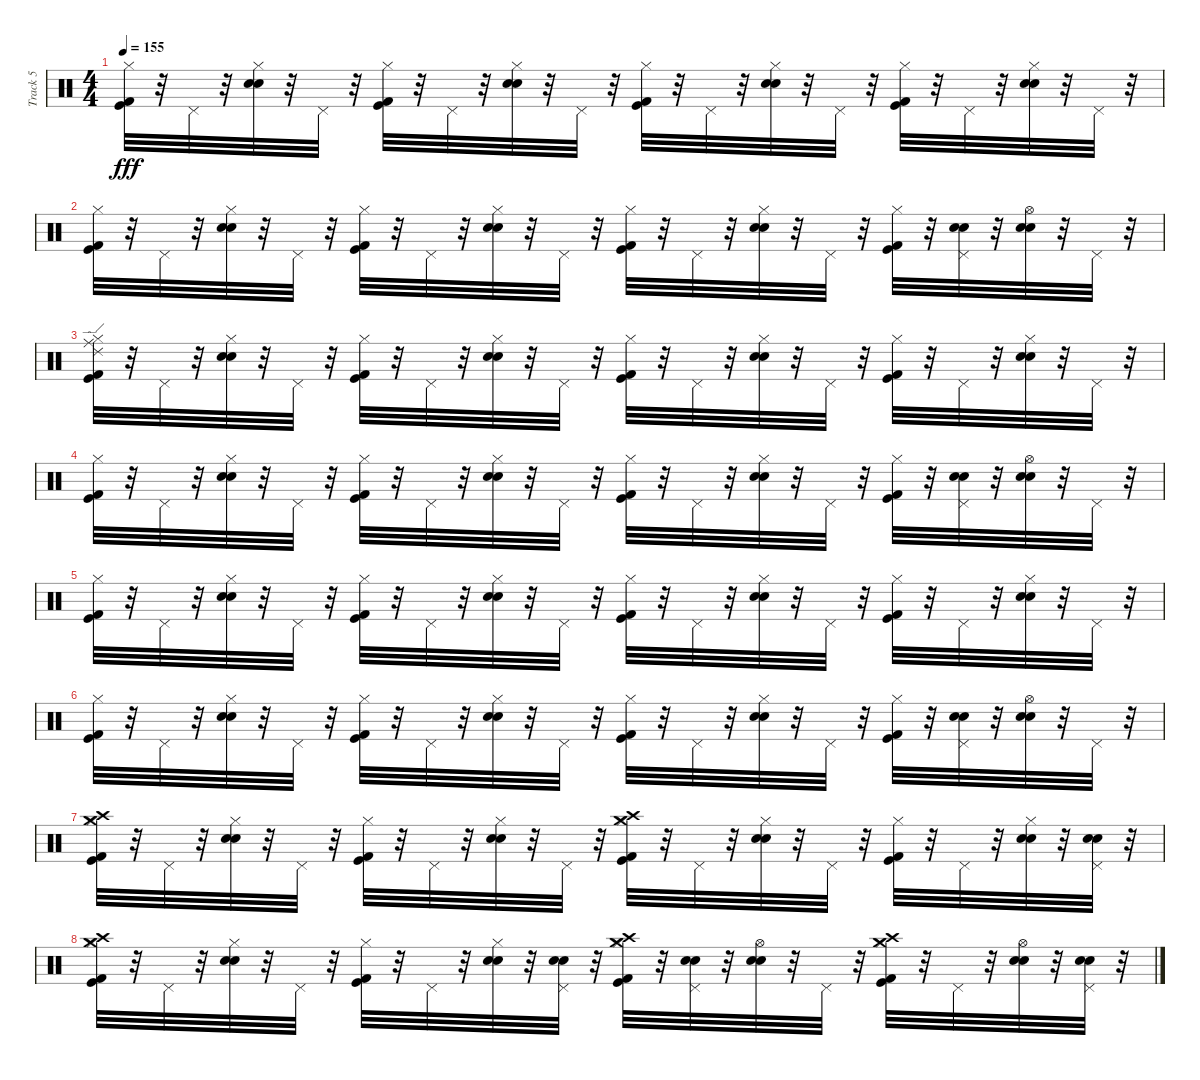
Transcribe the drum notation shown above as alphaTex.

\track ("Track 5" "Track 5") {instrument percussion}
\staff {score}
\articulation defaults
\ts (4 4)
\tempo 155
\clef neutral
\ks c
("Kick (hit)" "Kick (hit) 2" "Hi-Hat (closed)").32{dy fff} r.32 "Pedal Hi-Hat (hit)".32 r.32 ("Snare (hit) 2" "Electric Snare (hit)" "Hi-Hat (closed)").32 r.32 "Pedal Hi-Hat (hit)".32 r.32 ("Kick (hit)" "Kick (hit) 2" "Hi-Hat (closed)").32 r.32 "Pedal Hi-Hat (hit)".32 r.32 ("Snare (hit) 2" "Electric Snare (hit)" "Hi-Hat (closed)").32 r.32 "Pedal Hi-Hat (hit)".32 r.32 ("Kick (hit)" "Kick (hit) 2" "Hi-Hat (closed)").32 r.32 "Pedal Hi-Hat (hit)".32 r.32 ("Snare (hit) 2" "Electric Snare (hit)" "Hi-Hat (closed)").32 r.32 "Pedal Hi-Hat (hit)".32 r.32 ("Kick (hit)" "Kick (hit) 2" "Hi-Hat (closed)").32 r.32 "Pedal Hi-Hat (hit)".32 r.32 ("Snare (hit) 2" "Electric Snare (hit)" "Hi-Hat (closed)").32 r.32 "Pedal Hi-Hat (hit)".32 r.32 |
("Kick (hit)" "Kick (hit) 2" "Hi-Hat (closed)").32 r.32 "Pedal Hi-Hat (hit)".32 r.32 ("Snare (hit) 2" "Electric Snare (hit)" "Hi-Hat (closed)").32 r.32 "Pedal Hi-Hat (hit)".32 r.32 ("Kick (hit)" "Kick (hit) 2" "Hi-Hat (closed)").32 r.32 "Pedal Hi-Hat (hit)".32 r.32 ("Snare (hit) 2" "Electric Snare (hit)" "Hi-Hat (closed)").32 r.32 "Pedal Hi-Hat (hit)".32 r.32 ("Kick (hit)" "Kick (hit) 2" "Hi-Hat (closed)").32 r.32 "Pedal Hi-Hat (hit)".32 r.32 ("Snare (hit) 2" "Electric Snare (hit)" "Hi-Hat (closed)").32 r.32 "Pedal Hi-Hat (hit)".32 r.32 ("Kick (hit)" "Kick (hit) 2" "Hi-Hat (closed)").32 r.32 ("Snare (hit) 2" "Electric Snare (hit)" "Pedal Hi-Hat (hit)").32 r.32 ("Snare (hit) 2" "Electric Snare (hit)" "Hi-Hat (open)").32 r.32 "Pedal Hi-Hat (hit)".32 r.32 |
("Kick (hit)" "Kick (hit) 2" "Hi-Hat (closed)" "Ride (middle)" "Ride (edge) 2").32 r.32 "Pedal Hi-Hat (hit)".32 r.32 ("Snare (hit) 2" "Electric Snare (hit)" "Hi-Hat (closed)").32 r.32 "Pedal Hi-Hat (hit)".32 r.32 ("Kick (hit)" "Kick (hit) 2" "Hi-Hat (closed)").32 r.32 "Pedal Hi-Hat (hit)".32 r.32 ("Snare (hit) 2" "Electric Snare (hit)" "Hi-Hat (closed)").32 r.32 "Pedal Hi-Hat (hit)".32 r.32 ("Kick (hit)" "Kick (hit) 2" "Hi-Hat (closed)").32 r.32 "Pedal Hi-Hat (hit)".32 r.32 ("Snare (hit) 2" "Electric Snare (hit)" "Hi-Hat (closed)").32 r.32 "Pedal Hi-Hat (hit)".32 r.32 ("Kick (hit)" "Kick (hit) 2" "Hi-Hat (closed)").32 r.32 "Pedal Hi-Hat (hit)".32 r.32 ("Snare (hit) 2" "Electric Snare (hit)" "Hi-Hat (closed)").32 r.32 "Pedal Hi-Hat (hit)".32 r.32 |
("Kick (hit)" "Kick (hit) 2" "Hi-Hat (closed)").32 r.32 "Pedal Hi-Hat (hit)".32 r.32 ("Snare (hit) 2" "Electric Snare (hit)" "Hi-Hat (closed)").32 r.32 "Pedal Hi-Hat (hit)".32 r.32 ("Kick (hit)" "Kick (hit) 2" "Hi-Hat (closed)").32 r.32 "Pedal Hi-Hat (hit)".32 r.32 ("Snare (hit) 2" "Electric Snare (hit)" "Hi-Hat (closed)").32 r.32 "Pedal Hi-Hat (hit)".32 r.32 ("Kick (hit)" "Kick (hit) 2" "Hi-Hat (closed)").32 r.32 "Pedal Hi-Hat (hit)".32 r.32 ("Snare (hit) 2" "Electric Snare (hit)" "Hi-Hat (closed)").32 r.32 "Pedal Hi-Hat (hit)".32 r.32 ("Kick (hit)" "Kick (hit) 2" "Hi-Hat (closed)").32 r.32 ("Snare (hit) 2" "Electric Snare (hit)" "Pedal Hi-Hat (hit)").32 r.32 ("Snare (hit) 2" "Electric Snare (hit)" "Hi-Hat (open)").32 r.32 "Pedal Hi-Hat (hit)".32 r.32 |
("Kick (hit)" "Kick (hit) 2" "Hi-Hat (closed)").32 r.32 "Pedal Hi-Hat (hit)".32 r.32 ("Snare (hit) 2" "Electric Snare (hit)" "Hi-Hat (closed)").32 r.32 "Pedal Hi-Hat (hit)".32 r.32 ("Kick (hit)" "Kick (hit) 2" "Hi-Hat (closed)").32 r.32 "Pedal Hi-Hat (hit)".32 r.32 ("Snare (hit) 2" "Electric Snare (hit)" "Hi-Hat (closed)").32 r.32 "Pedal Hi-Hat (hit)".32 r.32 ("Kick (hit)" "Kick (hit) 2" "Hi-Hat (closed)").32 r.32 "Pedal Hi-Hat (hit)".32 r.32 ("Snare (hit) 2" "Electric Snare (hit)" "Hi-Hat (closed)").32 r.32 "Pedal Hi-Hat (hit)".32 r.32 ("Kick (hit)" "Kick (hit) 2" "Hi-Hat (closed)").32 r.32 "Pedal Hi-Hat (hit)".32 r.32 ("Snare (hit) 2" "Electric Snare (hit)" "Hi-Hat (closed)").32 r.32 "Pedal Hi-Hat (hit)".32 r.32 |
("Kick (hit)" "Kick (hit) 2" "Hi-Hat (closed)").32 r.32 "Pedal Hi-Hat (hit)".32 r.32 ("Snare (hit) 2" "Electric Snare (hit)" "Hi-Hat (closed)").32 r.32 "Pedal Hi-Hat (hit)".32 r.32 ("Kick (hit)" "Kick (hit) 2" "Hi-Hat (closed)").32 r.32 "Pedal Hi-Hat (hit)".32 r.32 ("Snare (hit) 2" "Electric Snare (hit)" "Hi-Hat (closed)").32 r.32 "Pedal Hi-Hat (hit)".32 r.32 ("Kick (hit)" "Kick (hit) 2" "Hi-Hat (closed)").32 r.32 "Pedal Hi-Hat (hit)".32 r.32 ("Snare (hit) 2" "Electric Snare (hit)" "Hi-Hat (closed)").32 r.32 "Pedal Hi-Hat (hit)".32 r.32 ("Kick (hit)" "Kick (hit) 2" "Hi-Hat (closed)").32 r.32 ("Snare (hit) 2" "Electric Snare (hit)" "Pedal Hi-Hat (hit)").32 r.32 ("Snare (hit) 2" "Electric Snare (hit)" "Hi-Hat (open)").32 r.32 "Pedal Hi-Hat (hit)".32 r.32 |
("Kick (hit)" "Kick (hit) 2" "Hi-Hat (closed)" "Crash high (hit)" "Crash medium (hit)").32 r.32 "Pedal Hi-Hat (hit)".32 r.32 ("Snare (hit) 2" "Electric Snare (hit)" "Hi-Hat (closed)").32 r.32 "Pedal Hi-Hat (hit)".32 r.32 ("Kick (hit)" "Kick (hit) 2" "Hi-Hat (closed)").32 r.32 "Pedal Hi-Hat (hit)".32 r.32 ("Snare (hit) 2" "Electric Snare (hit)" "Hi-Hat (closed)").32 r.32 "Pedal Hi-Hat (hit)".32 r.32 ("Kick (hit)" "Kick (hit) 2" "Hi-Hat (closed)" "Crash high (hit)" "Crash medium (hit)").32 r.32 "Pedal Hi-Hat (hit)".32 r.32 ("Snare (hit) 2" "Electric Snare (hit)" "Hi-Hat (closed)").32 r.32 "Pedal Hi-Hat (hit)".32 r.32 ("Kick (hit)" "Kick (hit) 2" "Hi-Hat (closed)").32 r.32 "Pedal Hi-Hat (hit)".32 r.32 ("Snare (hit) 2" "Electric Snare (hit)" "Hi-Hat (closed)").32 r.32 ("Snare (hit) 2" "Electric Snare (hit)" "Pedal Hi-Hat (hit)").32 r.32 |
("Kick (hit)" "Kick (hit) 2" "Hi-Hat (closed)" "Crash high (hit)" "Crash medium (hit)").32 r.32 "Pedal Hi-Hat (hit)".32 r.32 ("Snare (hit) 2" "Electric Snare (hit)" "Hi-Hat (closed)").32 r.32 "Pedal Hi-Hat (hit)".32 r.32 ("Kick (hit)" "Kick (hit) 2" "Hi-Hat (closed)").32 r.32 "Pedal Hi-Hat (hit)".32 r.32 ("Snare (hit) 2" "Electric Snare (hit)" "Hi-Hat (closed)").32 r.32 ("Snare (hit) 2" "Electric Snare (hit)" "Pedal Hi-Hat (hit)").32 r.32 ("Kick (hit)" "Kick (hit) 2" "Hi-Hat (closed)" "Crash high (hit)" "Crash medium (hit)").32 r.32 ("Snare (hit) 2" "Electric Snare (hit)" "Pedal Hi-Hat (hit)").32 r.32 ("Snare (hit) 2" "Electric Snare (hit)" "Hi-Hat (open)").32 r.32 "Pedal Hi-Hat (hit)".32 r.32 ("Kick (hit)" "Kick (hit) 2" "Hi-Hat (closed)" "Crash high (hit)" "Crash medium (hit)").32 r.32 "Pedal Hi-Hat (hit)".32 r.32 ("Snare (hit) 2" "Electric Snare (hit)" "Hi-Hat (open)").32 r.32 ("Snare (hit) 2" "Electric Snare (hit)" "Pedal Hi-Hat (hit)").32 r.32
